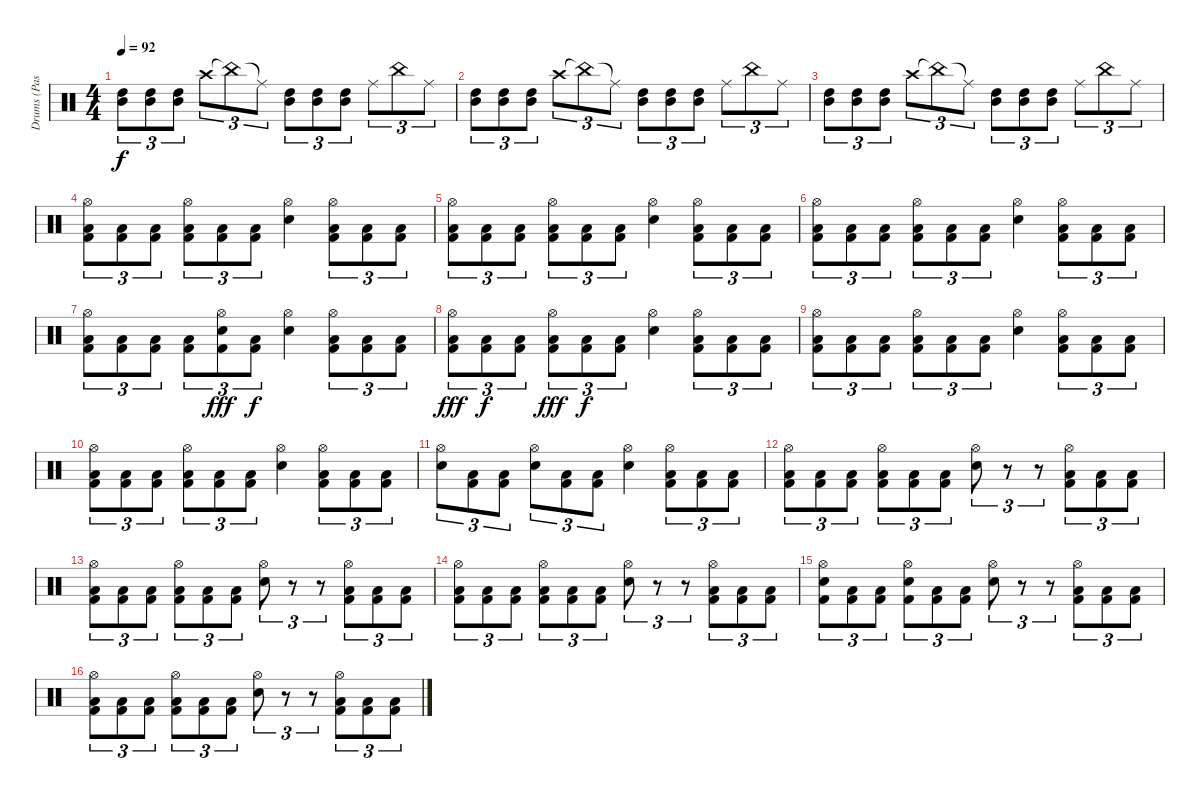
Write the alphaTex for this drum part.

\track ("Drums (Pasanen)" "Drums (Pas") {instrument percussion}
\staff {score}
\articulation defaults
\ts (4 4)
\tempo 92
\clef neutral
\ks c
("High Tom (hit)" "Mid Tom (hit)").8{tu (3 2) dy f} ("Mid Tom (hit)" "High Tom (hit)").8{tu (3 2)} ("Mid Tom (hit)" "High Tom (hit)").8{tu (3 2)} "Crash high (hit)".8{tu (3 2)} "China (hit)"{t}.8{tu (3 2)} "Ride (middle)"{t}.8{tu (3 2)} ("High Tom (hit)" "Mid Tom (hit)").8{tu (3 2)} ("Mid Tom (hit)" "High Tom (hit)").8{tu (3 2)} ("Mid Tom (hit)" "High Tom (hit)").8{tu (3 2)} "Ride (middle)".8{tu (3 2)} "China (hit)".8{tu (3 2)} "Ride (middle)".8{tu (3 2)} |
("High Tom (hit)" "Mid Tom (hit)").8{tu (3 2)} ("Mid Tom (hit)" "High Tom (hit)").8{tu (3 2)} ("Mid Tom (hit)" "High Tom (hit)").8{tu (3 2)} "Crash high (hit)".8{tu (3 2)} "China (hit)"{t}.8{tu (3 2)} "Ride (middle)"{t}.8{tu (3 2)} ("High Tom (hit)" "Mid Tom (hit)").8{tu (3 2)} ("Mid Tom (hit)" "High Tom (hit)").8{tu (3 2)} ("Mid Tom (hit)" "High Tom (hit)").8{tu (3 2)} "Ride (middle)".8{tu (3 2)} "China (hit)".8{tu (3 2)} "Ride (middle)".8{tu (3 2)} |
("High Tom (hit)" "Mid Tom (hit)").8{tu (3 2)} ("Mid Tom (hit)" "High Tom (hit)").8{tu (3 2)} ("Mid Tom (hit)" "High Tom (hit)").8{tu (3 2)} "Crash high (hit)".8{tu (3 2)} "China (hit)"{t}.8{tu (3 2)} "Ride (middle)"{t}.8{tu (3 2)} ("High Tom (hit)" "Mid Tom (hit)").8{tu (3 2)} ("Mid Tom (hit)" "High Tom (hit)").8{tu (3 2)} ("Mid Tom (hit)" "High Tom (hit)").8{tu (3 2)} "Ride (middle)".8{tu (3 2)} "China (hit)".8{tu (3 2)} "Ride (middle)".8{tu (3 2)} |
("Hi-Hat (open)" "Low Tom (hit)" "Kick (hit) 2").8{tu (3 2)} ("Low Tom (hit)" "Kick (hit) 2").8{tu (3 2)} ("Low Tom (hit)" "Kick (hit) 2").8{tu (3 2)} ("Hi-Hat (open)" "Low Tom (hit)" "Kick (hit) 2").8{tu (3 2)} ("Low Tom (hit)" "Kick (hit) 2").8{tu (3 2)} ("Low Tom (hit)" "Kick (hit) 2").8{tu (3 2)} ("Hi-Hat (open)" "Electric Snare (hit)").4 ("Hi-Hat (open)" "Low Tom (hit)" "Kick (hit) 2").8{tu (3 2)} ("Low Tom (hit)" "Kick (hit) 2").8{tu (3 2)} ("Low Tom (hit)" "Kick (hit) 2").8{tu (3 2)} |
("Hi-Hat (open)" "Low Tom (hit)" "Kick (hit) 2").8{tu (3 2)} ("Low Tom (hit)" "Kick (hit) 2").8{tu (3 2)} ("Low Tom (hit)" "Kick (hit) 2").8{tu (3 2)} ("Hi-Hat (open)" "Low Tom (hit)" "Kick (hit) 2").8{tu (3 2)} ("Low Tom (hit)" "Kick (hit) 2").8{tu (3 2)} ("Low Tom (hit)" "Kick (hit) 2").8{tu (3 2)} ("Hi-Hat (open)" "Electric Snare (hit)").4 ("Hi-Hat (open)" "Low Tom (hit)" "Kick (hit) 2").8{tu (3 2)} ("Low Tom (hit)" "Kick (hit) 2").8{tu (3 2)} ("Low Tom (hit)" "Kick (hit) 2").8{tu (3 2)} |
("Hi-Hat (open)" "Low Tom (hit)" "Kick (hit) 2").8{tu (3 2)} ("Low Tom (hit)" "Kick (hit) 2").8{tu (3 2)} ("Low Tom (hit)" "Kick (hit) 2").8{tu (3 2)} ("Hi-Hat (open)" "Low Tom (hit)" "Kick (hit) 2").8{tu (3 2)} ("Low Tom (hit)" "Kick (hit) 2").8{tu (3 2)} ("Low Tom (hit)" "Kick (hit) 2").8{tu (3 2)} ("Hi-Hat (open)" "Electric Snare (hit)").4 ("Hi-Hat (open)" "Low Tom (hit)" "Kick (hit) 2").8{tu (3 2)} ("Low Tom (hit)" "Kick (hit) 2").8{tu (3 2)} ("Low Tom (hit)" "Kick (hit) 2").8{tu (3 2)} |
("Hi-Hat (open)" "Low Tom (hit)" "Kick (hit) 2").8{tu (3 2)} ("Low Tom (hit)" "Kick (hit) 2").8{tu (3 2)} ("Low Tom (hit)" "Kick (hit) 2").8{tu (3 2)} ("Low Tom (hit)" "Kick (hit) 2").8{tu (3 2)} ("Hi-Hat (open)" "Electric Snare (hit)" "Kick (hit) 2").8{tu (3 2) dy fff} ("Low Tom (hit)" "Kick (hit) 2").8{tu (3 2) dy f} ("Hi-Hat (open)" "Electric Snare (hit)").4 ("Hi-Hat (open)" "Low Tom (hit)" "Kick (hit) 2").8{tu (3 2)} ("Low Tom (hit)" "Kick (hit) 2").8{tu (3 2)} ("Low Tom (hit)" "Kick (hit) 2").8{tu (3 2)} |
("Hi-Hat (open)" "Low Tom (hit)" "Kick (hit) 2").8{tu (3 2) dy fff} ("Low Tom (hit)" "Kick (hit) 2").8{tu (3 2) dy f} ("Low Tom (hit)" "Kick (hit) 2").8{tu (3 2)} ("Hi-Hat (open)" "Low Tom (hit)" "Kick (hit) 2").8{tu (3 2) dy fff} ("Low Tom (hit)" "Kick (hit) 2").8{tu (3 2) dy f} ("Low Tom (hit)" "Kick (hit) 2").8{tu (3 2)} ("Hi-Hat (open)" "Electric Snare (hit)").4 ("Hi-Hat (open)" "Low Tom (hit)" "Kick (hit) 2").8{tu (3 2)} ("Low Tom (hit)" "Kick (hit) 2").8{tu (3 2)} ("Low Tom (hit)" "Kick (hit) 2").8{tu (3 2)} |
("Hi-Hat (open)" "Low Tom (hit)" "Kick (hit) 2").8{tu (3 2)} ("Low Tom (hit)" "Kick (hit) 2").8{tu (3 2)} ("Low Tom (hit)" "Kick (hit) 2").8{tu (3 2)} ("Hi-Hat (open)" "Low Tom (hit)" "Kick (hit) 2").8{tu (3 2)} ("Low Tom (hit)" "Kick (hit) 2").8{tu (3 2)} ("Low Tom (hit)" "Kick (hit) 2").8{tu (3 2)} ("Hi-Hat (open)" "Electric Snare (hit)").4 ("Hi-Hat (open)" "Low Tom (hit)" "Kick (hit) 2").8{tu (3 2)} ("Low Tom (hit)" "Kick (hit) 2").8{tu (3 2)} ("Low Tom (hit)" "Kick (hit) 2").8{tu (3 2)} |
("Hi-Hat (open)" "Low Tom (hit)" "Kick (hit) 2").8{tu (3 2)} ("Low Tom (hit)" "Kick (hit) 2").8{tu (3 2)} ("Low Tom (hit)" "Kick (hit) 2").8{tu (3 2)} ("Hi-Hat (open)" "Low Tom (hit)" "Kick (hit) 2").8{tu (3 2)} ("Low Tom (hit)" "Kick (hit) 2").8{tu (3 2)} ("Low Tom (hit)" "Kick (hit) 2").8{tu (3 2)} ("Hi-Hat (open)" "Electric Snare (hit)").4 ("Hi-Hat (open)" "Low Tom (hit)" "Kick (hit) 2").8{tu (3 2)} ("Low Tom (hit)" "Kick (hit) 2").8{tu (3 2)} ("Low Tom (hit)" "Kick (hit) 2").8{tu (3 2)} |
("Hi-Hat (open)" "Electric Snare (hit)").8{tu (3 2)} ("Low Tom (hit)" "Kick (hit) 2").8{tu (3 2)} ("Low Tom (hit)" "Kick (hit) 2").8{tu (3 2)} ("Hi-Hat (open)" "Electric Snare (hit)").8{tu (3 2)} ("Low Tom (hit)" "Kick (hit) 2").8{tu (3 2)} ("Low Tom (hit)" "Kick (hit) 2").8{tu (3 2)} ("Hi-Hat (open)" "Electric Snare (hit)").4 ("Hi-Hat (open)" "Low Tom (hit)" "Kick (hit) 2").8{tu (3 2)} ("Low Tom (hit)" "Kick (hit) 2").8{tu (3 2)} ("Low Tom (hit)" "Kick (hit) 2").8{tu (3 2)} |
("Hi-Hat (open)" "Low Tom (hit)" "Kick (hit) 2").8{tu (3 2)} ("Low Tom (hit)" "Kick (hit) 2").8{tu (3 2)} ("Low Tom (hit)" "Kick (hit) 2").8{tu (3 2)} ("Hi-Hat (open)" "Low Tom (hit)" "Kick (hit) 2").8{tu (3 2)} ("Low Tom (hit)" "Kick (hit) 2").8{tu (3 2)} ("Low Tom (hit)" "Kick (hit) 2").8{tu (3 2)} ("Hi-Hat (open)" "Electric Snare (hit)").8{tu (3 2)} r.8{tu (3 2)} r.8{tu (3 2)} ("Hi-Hat (open)" "Low Tom (hit)" "Kick (hit) 2").8{tu (3 2)} ("Low Tom (hit)" "Kick (hit) 2").8{tu (3 2)} ("Low Tom (hit)" "Kick (hit) 2").8{tu (3 2)} |
("Hi-Hat (open)" "Low Tom (hit)" "Kick (hit) 2").8{tu (3 2)} ("Low Tom (hit)" "Kick (hit) 2").8{tu (3 2)} ("Low Tom (hit)" "Kick (hit) 2").8{tu (3 2)} ("Hi-Hat (open)" "Low Tom (hit)" "Kick (hit) 2").8{tu (3 2)} ("Low Tom (hit)" "Kick (hit) 2").8{tu (3 2)} ("Low Tom (hit)" "Kick (hit) 2").8{tu (3 2)} ("Hi-Hat (open)" "Electric Snare (hit)").8{tu (3 2)} r.8{tu (3 2)} r.8{tu (3 2)} ("Hi-Hat (open)" "Low Tom (hit)" "Kick (hit) 2").8{tu (3 2)} ("Low Tom (hit)" "Kick (hit) 2").8{tu (3 2)} ("Low Tom (hit)" "Kick (hit) 2").8{tu (3 2)} |
("Hi-Hat (open)" "Low Tom (hit)" "Kick (hit) 2").8{tu (3 2)} ("Low Tom (hit)" "Kick (hit) 2").8{tu (3 2)} ("Low Tom (hit)" "Kick (hit) 2").8{tu (3 2)} ("Hi-Hat (open)" "Low Tom (hit)" "Kick (hit) 2").8{tu (3 2)} ("Low Tom (hit)" "Kick (hit) 2").8{tu (3 2)} ("Low Tom (hit)" "Kick (hit) 2").8{tu (3 2)} ("Hi-Hat (open)" "Electric Snare (hit)").8{tu (3 2)} r.8{tu (3 2)} r.8{tu (3 2)} ("Hi-Hat (open)" "Low Tom (hit)" "Kick (hit) 2").8{tu (3 2)} ("Low Tom (hit)" "Kick (hit) 2").8{tu (3 2)} ("Low Tom (hit)" "Kick (hit) 2").8{tu (3 2)} |
("Hi-Hat (open)" "Electric Snare (hit)" "Kick (hit) 2").8{tu (3 2)} ("Low Tom (hit)" "Kick (hit) 2").8{tu (3 2)} ("Low Tom (hit)" "Kick (hit) 2").8{tu (3 2)} ("Hi-Hat (open)" "Electric Snare (hit)" "Kick (hit) 2").8{tu (3 2)} ("Low Tom (hit)" "Kick (hit) 2").8{tu (3 2)} ("Low Tom (hit)" "Kick (hit) 2").8{tu (3 2)} ("Hi-Hat (open)" "Electric Snare (hit)").8{tu (3 2)} r.8{tu (3 2)} r.8{tu (3 2)} ("Hi-Hat (open)" "Low Tom (hit)" "Kick (hit) 2").8{tu (3 2)} ("Low Tom (hit)" "Kick (hit) 2").8{tu (3 2)} ("Low Tom (hit)" "Kick (hit) 2").8{tu (3 2)} |
("Hi-Hat (open)" "Low Tom (hit)" "Kick (hit) 2").8{tu (3 2)} ("Low Tom (hit)" "Kick (hit) 2").8{tu (3 2)} ("Low Tom (hit)" "Kick (hit) 2").8{tu (3 2)} ("Hi-Hat (open)" "Low Tom (hit)" "Kick (hit) 2").8{tu (3 2)} ("Low Tom (hit)" "Kick (hit) 2").8{tu (3 2)} ("Low Tom (hit)" "Kick (hit) 2").8{tu (3 2)} ("Hi-Hat (open)" "Electric Snare (hit)").8{tu (3 2)} r.8{tu (3 2)} r.8{tu (3 2)} ("Hi-Hat (open)" "Low Tom (hit)" "Kick (hit) 2").8{tu (3 2)} ("Low Tom (hit)" "Kick (hit) 2").8{tu (3 2)} ("Low Tom (hit)" "Kick (hit) 2").8{tu (3 2)}
